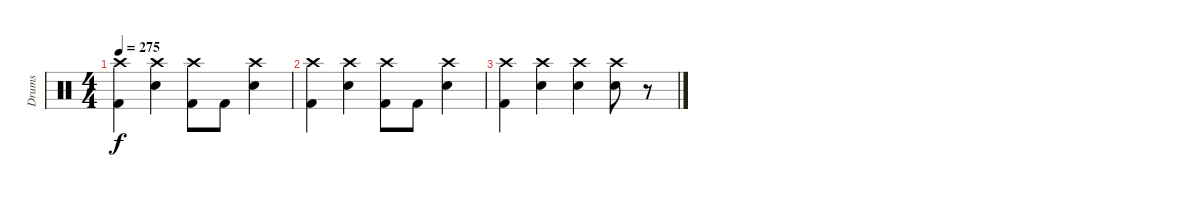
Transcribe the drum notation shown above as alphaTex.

\track ("Drums" "Drums") {instrument percussion}
\staff {score}
\articulation defaults
\ts (4 4)
\tempo 275
\clef neutral
\ks c
("Kick (hit) 2" "Crash high (hit)").4{dy f} ("Electric Snare (hit)" "Crash high (hit)").4 ("Kick (hit) 2" "Crash high (hit)").8 "Kick (hit) 2".8 ("Electric Snare (hit)" "Crash high (hit)").4 |
("Kick (hit) 2" "Crash high (hit)").4 ("Electric Snare (hit)" "Crash high (hit)").4 ("Kick (hit) 2" "Crash high (hit)").8 "Kick (hit) 2".8 ("Electric Snare (hit)" "Crash high (hit)").4 |
("Kick (hit) 2" "Crash high (hit)").4 ("Electric Snare (hit)" "Crash high (hit)").4 ("Electric Snare (hit)" "Crash high (hit)").4 ("Electric Snare (hit)" "Crash high (hit)").8 r.8
